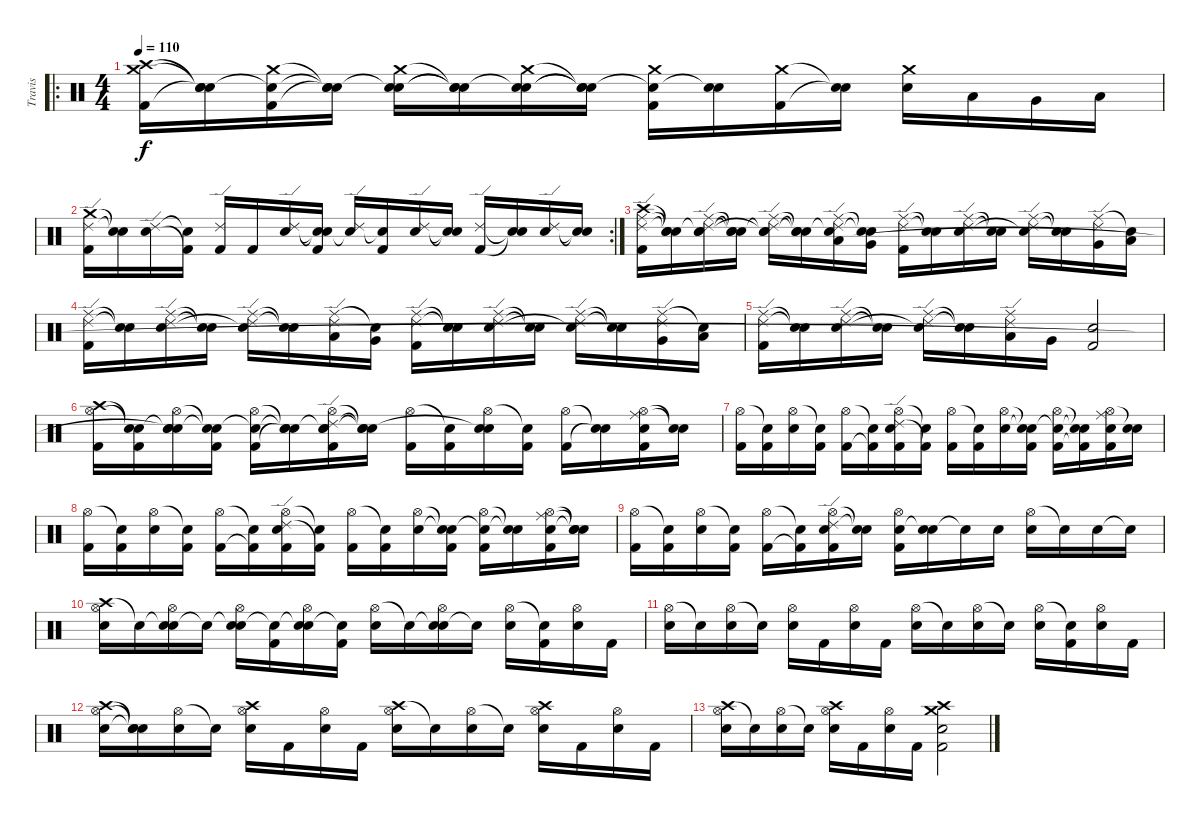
\track ("Travis" "Travis") {instrument percussion}
\staff {score}
\articulation defaults
\ro
\ts (4 4)
\tempo 110
\clef neutral
\ks c
("Crash high (hit)" "Crash medium (hit)" "Kick (hit) 2").16{dy f} ("Snare (hit)"{t} "Snare (hit)"{t} "Snare (hit)"{t}).16 ("Snare (hit)"{t} "Crash medium (hit)" "Kick (hit) 2").16 ("Snare (hit)"{t} "Snare (hit)"{t} "Snare (hit)"{t}).16 ("Snare (hit)"{t} "Crash medium (hit)" "Electric Snare (hit)").16 ("Snare (hit)"{t} "Snare (hit)"{t} "Snare (hit)"{t}).16 ("Snare (hit)"{t} "Crash medium (hit)" "Electric Snare (hit)").16 ("Snare (hit)"{t} "Snare (hit)"{t} "Snare (hit)"{t}).16 ("Snare (hit)"{t} "Crash medium (hit)" "Kick (hit) 2").16 ("Snare (hit)"{t} "Electric Snare (hit)").16 ("Crash medium (hit)" "Kick (hit) 2").16 ("Snare (hit)"{t} "Snare (hit)"{t}).16 ("Crash medium (hit)" "Electric Snare (hit)").16 "Low Tom (hit)".16 "Very Low Tom (hit)".16 "Low Floor Tom (hit)".16 |
\rc 2
("Crash medium (hit)" "Ride (edge) 2" "Kick (hit) 2").16 ("Snare (hit)"{t} "Snare (hit)"{t}).16 ("Ride (edge) 2" "Electric Snare (hit)").16 ("Snare (hit)"{t} "Kick (hit) 2"{t}).16 ("Ride (edge) 2" "Kick (hit) 2").16 "Kick (hit) 2".16 ("Ride (edge) 2" "Electric Snare (hit)").16 ("Snare (hit)"{t} "Snare (hit)"{t} "Kick (hit) 2").16 ("Ride (edge) 2" "Snare (hit)"{t}).16 ("Snare (hit)"{t} "Kick (hit) 2").16 ("Ride (edge) 2" "Electric Snare (hit)").16 ("Snare (hit)"{t} "Snare (hit)"{t}).16 ("Ride (edge) 2" "Kick (hit) 2").16 ("Snare (hit)"{t} "Snare (hit)"{t}).16 ("Ride (edge) 2" "Electric Snare (hit)").16 ("Snare (hit)"{t} "Snare (hit)"{t}).16 |
("Crash high (hit)" "Ride (middle)" "Ride (edge) 2" "Kick (hit) 2").16 ("Snare (hit)"{t} "Snare (hit)"{t} "Snare (hit)"{t}).16 ("Snare (hit)"{t} "Ride (middle)" "Ride (edge) 2" "Electric Snare (hit)").16 ("Snare (hit)"{t} "Snare (hit)"{t} "Snare (hit)"{t}).16 ("Snare (hit)"{t} "Ride (middle)" "Ride (edge) 2" "Snare (hit)"{t}).16 ("Snare (hit)"{t} "Snare (hit)"{t} "Snare (hit)"{t}).16 ("Snare (hit)"{t} "Ride (middle)" "Ride (edge) 2" "Low Tom (hit)").16 ("Snare (hit)"{t} "Snare (hit)"{t} "Very Low Tom (hit)").16 ("Ride (middle)" "Ride (edge) 2" "Kick (hit) 2").16 ("Snare (hit)"{t} "Snare (hit)"{t}).16 ("Ride (middle)" "Ride (edge) 2" "Electric Snare (hit)").16 ("Snare (hit)"{t} "Snare (hit)"{t}).16 ("Ride (middle)" "Ride (edge) 2" "Snare (hit)"{t}).16 ("Snare (hit)"{t} "Snare (hit)"{t}).16 ("Ride (middle)" "Ride (edge) 2" "Very Low Tom (hit)").16 ("Snare (hit)"{t} "Low Floor Tom (hit)").16 |
("Ride (middle)" "Ride (edge) 2" "Kick (hit) 2").16 ("Snare (hit)"{t} "Snare (hit)"{t}).16 ("Ride (middle)" "Ride (edge) 2" "Electric Snare (hit)").16 ("Snare (hit)"{t} "Snare (hit)"{t}).16 ("Ride (middle)" "Ride (edge) 2" "Snare (hit)"{t}).16 ("Snare (hit)"{t} "Snare (hit)"{t}).16 ("Ride (middle)" "Ride (edge) 2" "Low Tom (hit)").16 ("Snare (hit)"{t} "Very Low Tom (hit)").16 ("Ride (middle)" "Ride (edge) 2" "Kick (hit) 2").16 ("Snare (hit)"{t} "Snare (hit)"{t}).16 ("Ride (middle)" "Ride (edge) 2" "Electric Snare (hit)").16 ("Snare (hit)"{t} "Snare (hit)"{t}).16 ("Ride (middle)" "Ride (edge) 2" "Snare (hit)"{t}).16 ("Snare (hit)"{t} "Snare (hit)"{t}).16 ("Ride (middle)" "Ride (edge) 2" "Very Low Tom (hit)").16 ("Snare (hit)"{t} "Low Floor Tom (hit)").16 |
("Ride (middle)" "Ride (edge) 2" "Kick (hit) 2").16 ("Snare (hit)"{t} "Snare (hit)"{t}).16 ("Ride (middle)" "Ride (edge) 2" "Electric Snare (hit)").16 ("Snare (hit)"{t} "Snare (hit)"{t}).16 ("Ride (middle)" "Ride (edge) 2" "Snare (hit)"{t}).16 ("Snare (hit)"{t} "Snare (hit)"{t}).16 ("Ride (middle)" "Ride (edge) 2" "Low Tom (hit)").16 "Very Low Tom (hit)".16 ("Electric Snare (hit)" "Kick (hit) 2").2 |
("Crash high (hit)" "Hi-Hat (open)" "Kick (hit) 2").16 ("Snare (hit)"{t} "Snare (hit)"{t} "Kick (hit) 2").16 ("Snare (hit)"{t} "Hi-Hat (open)" "Electric Snare (hit)" "Snare (hit)"{t}).16 ("Snare (hit)"{t} "Snare (hit)"{t} "Kick (hit) 2").16 ("Snare (hit)"{t} "Hi-Hat (open)" "Kick (hit) 2").16 ("Snare (hit)"{t} "Snare (hit)"{t} "Snare (hit)"{t}).16 ("Snare (hit)"{t} "Hi-Hat (open)" "Ride (edge) 2" "Electric Snare (hit)" "Kick (hit) 2").16 ("Snare (hit)"{t} "Snare (hit)"{t} "Snare (hit)"{t}).16 ("Hi-Hat (open)" "Kick (hit) 2").16 ("Snare (hit)"{t} "Kick (hit) 2").16 ("Hi-Hat (open)" "Electric Snare (hit)" "Snare (hit)"{t}).16 ("Snare (hit)"{t} "Kick (hit) 2").16 ("Hi-Hat (open)" "Kick (hit) 2").16 ("Snare (hit)"{t} "Snare (hit)"{t}).16 ("Hi-Hat (open)" "Ride (middle)" "Electric Snare (hit)" "Kick (hit) 2").16 ("Snare (hit)"{t} "Snare (hit)"{t}).16 |
("Hi-Hat (open)" "Kick (hit) 2").16 ("Snare (hit)"{t} "Kick (hit) 2").16 ("Hi-Hat (open)" "Electric Snare (hit)").16 ("Snare (hit)"{t} "Kick (hit) 2").16 ("Hi-Hat (open)" "Kick (hit) 2").16 ("Snare (hit)"{t} "Kick (hit) 2"{t}).16 ("Hi-Hat (open)" "Ride (edge) 2" "Electric Snare (hit)" "Kick (hit) 2").16 ("Snare (hit)"{t} "Kick (hit) 2"{t}).16 ("Hi-Hat (open)" "Kick (hit) 2").16 ("Snare (hit)"{t} "Kick (hit) 2").16 ("Hi-Hat (open)" "Electric Snare (hit)").16 ("Snare (hit)"{t} "Snare (hit)"{t} "Kick (hit) 2").16 ("Hi-Hat (open)" "Electric Snare (hit)"{t} "Kick (hit) 2").16 ("Snare (hit)"{t} "Snare (hit)"{t} "Kick (hit) 2"{t}).16 ("Hi-Hat (open)" "Ride (middle)" "Electric Snare (hit)" "Kick (hit) 2").16 ("Snare (hit)"{t} "Electric Snare (hit)").16 |
("Hi-Hat (open)" "Kick (hit) 2").16 ("Snare (hit)"{t} "Kick (hit) 2").16 ("Hi-Hat (open)" "Electric Snare (hit)").16 ("Snare (hit)"{t} "Kick (hit) 2").16 ("Hi-Hat (open)" "Kick (hit) 2").16 ("Snare (hit)"{t} "Kick (hit) 2"{t}).16 ("Hi-Hat (open)" "Ride (edge) 2" "Electric Snare (hit)" "Kick (hit) 2").16 ("Snare (hit)"{t} "Kick (hit) 2"{t}).16 ("Hi-Hat (open)" "Kick (hit) 2").16 ("Snare (hit)"{t} "Kick (hit) 2").16 ("Hi-Hat (open)" "Electric Snare (hit)").16 ("Snare (hit)"{t} "Snare (hit)"{t} "Kick (hit) 2").16 ("Hi-Hat (open)" "Snare (hit)"{t} "Kick (hit) 2").16 ("Snare (hit)"{t} "Snare (hit)"{t}).16 ("Hi-Hat (open)" "Ride (middle)" "Electric Snare (hit)" "Kick (hit) 2").16 ("Snare (hit)"{t} "Snare (hit)"{t} "Snare (hit)"{t}).16 |
("Hi-Hat (open)" "Kick (hit) 2").16 ("Snare (hit)"{t} "Kick (hit) 2").16 ("Hi-Hat (open)" "Electric Snare (hit)").16 ("Snare (hit)"{t} "Kick (hit) 2").16 ("Hi-Hat (open)" "Kick (hit) 2").16 ("Snare (hit)"{t} "Kick (hit) 2"{t}).16 ("Hi-Hat (open)" "Ride (edge) 2" "Electric Snare (hit)" "Kick (hit) 2").16 ("Snare (hit)"{t} "Electric Snare (hit)"{t}).16 ("Hi-Hat (open)" "Electric Snare (hit)" "Kick (hit) 2").16 ("Electric Snare (hit)" "Snare (hit)"{t}).16 "Electric Snare (hit)"{t}.16 "Electric Snare (hit)".16 ("Hi-Hat (open)" "Electric Snare (hit)").16 "Electric Snare (hit)"{t}.16 "Electric Snare (hit)".16 "Snare (hit)"{t}.16 |
("Crash high (hit)" "Hi-Hat (open)" "Electric Snare (hit)").16 "Snare (hit)"{t}.16 ("Snare (hit)"{t} "Hi-Hat (open)" "Electric Snare (hit)").16 "Snare (hit)"{t}.16 ("Snare (hit)"{t} "Hi-Hat (open)" "Electric Snare (hit)").16 ("Snare (hit)"{t} "Kick (hit) 2").16 ("Snare (hit)"{t} "Hi-Hat (open)" "Electric Snare (hit)").16 ("Snare (hit)"{t} "Kick (hit) 2").16 ("Hi-Hat (open)" "Electric Snare (hit)").16 "Snare (hit)"{t}.16 ("Snare (hit)"{t} "Hi-Hat (open)" "Electric Snare (hit)").16 "Snare (hit)"{t}.16 ("Hi-Hat (open)" "Electric Snare (hit)").16 ("Snare (hit)"{t} "Kick (hit) 2").16 ("Hi-Hat (open)" "Electric Snare (hit)").16 "Kick (hit) 2".16 |
("Hi-Hat (open)" "Electric Snare (hit)").16 "Snare (hit)"{t}.16 ("Hi-Hat (open)" "Electric Snare (hit)").16 "Snare (hit)"{t}.16 ("Hi-Hat (open)" "Electric Snare (hit)").16 "Kick (hit) 2".16 ("Hi-Hat (open)" "Electric Snare (hit)").16 "Kick (hit) 2".16 ("Hi-Hat (open)" "Electric Snare (hit)").16 "Snare (hit)"{t}.16 ("Hi-Hat (open)" "Electric Snare (hit)").16 "Snare (hit)"{t}.16 ("Hi-Hat (open)" "Electric Snare (hit)").16 ("Snare (hit)"{t} "Kick (hit) 2").16 ("Hi-Hat (open)" "Electric Snare (hit)").16 "Kick (hit) 2".16 |
("Crash high (hit)" "Hi-Hat (open)" "Electric Snare (hit)").16 ("Snare (hit)"{t} "Snare (hit)"{t} "Snare (hit)"{t}).16 ("Hi-Hat (open)" "Electric Snare (hit)").16 "Snare (hit)"{t}.16 ("Crash high (hit)" "Hi-Hat (open)" "Electric Snare (hit)").16 "Kick (hit) 2".16 ("Hi-Hat (open)" "Electric Snare (hit)").16 "Kick (hit) 2".16 ("Crash high (hit)" "Hi-Hat (open)" "Electric Snare (hit)").16 "Snare (hit)"{t}.16 ("Hi-Hat (open)" "Electric Snare (hit)").16 "Snare (hit)"{t}.16 ("Crash high (hit)" "Hi-Hat (open)" "Electric Snare (hit)").16 "Kick (hit) 2".16 ("Hi-Hat (open)" "Electric Snare (hit)").16 "Kick (hit) 2".16 |
("Crash high (hit)" "Hi-Hat (open)" "Electric Snare (hit)").16 "Snare (hit)"{t}.16 ("Hi-Hat (open)" "Electric Snare (hit)").16 "Snare (hit)"{t}.16 ("Crash high (hit)" "Hi-Hat (open)" "Electric Snare (hit)").16 "Kick (hit) 2".16 ("Hi-Hat (open)" "Electric Snare (hit)").16 "Kick (hit) 2".16 ("Crash medium (hit)" "Crash high (hit)" "Electric Snare (hit)" "Kick (hit) 2").2
